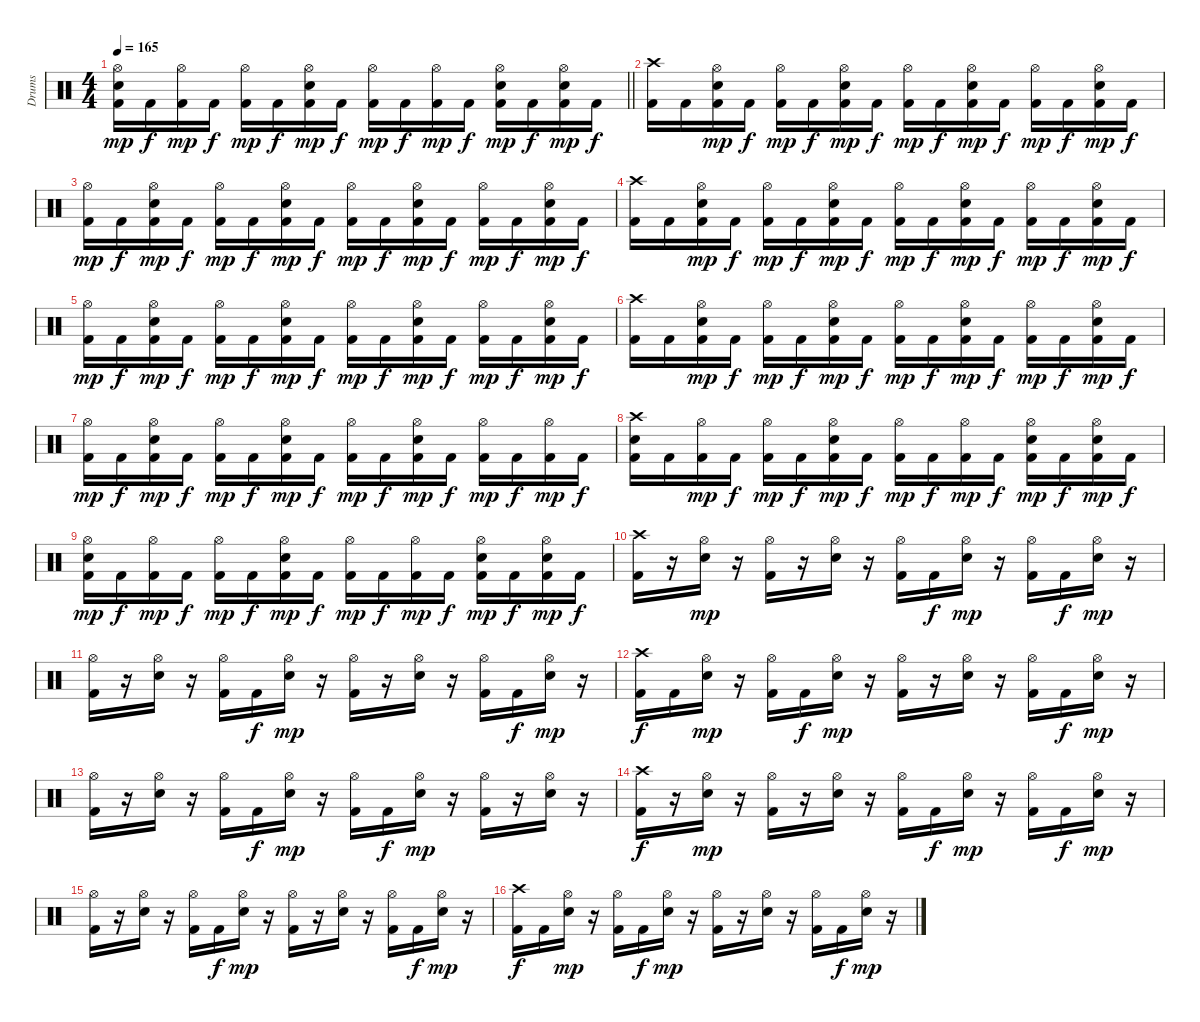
\track ("Drums" "Drums") {instrument percussion}
\staff {score}
\articulation defaults
\ts (4 4)
\tempo 165
\clef neutral
\barLineRight lightlight
\ks c
("Hi-Hat (open)" "Snare (hit) 2" "Kick (hit) 2").16{dy mp} "Kick (hit) 2".16{dy f} ("Hi-Hat (open)" "Kick (hit) 2").16{dy mp} "Kick (hit) 2".16{dy f} ("Hi-Hat (open)" "Kick (hit) 2").16{dy mp} "Kick (hit) 2".16{dy f} ("Hi-Hat (open)" "Snare (hit) 2" "Kick (hit) 2").16{dy mp} "Kick (hit) 2".16{dy f} ("Hi-Hat (open)" "Kick (hit) 2").16{dy mp} "Kick (hit) 2".16{dy f} ("Hi-Hat (open)" "Kick (hit) 2").16{dy mp} "Kick (hit) 2".16{dy f} ("Hi-Hat (open)" "Snare (hit) 2" "Kick (hit) 2").16{dy mp} "Kick (hit) 2".16{dy f} ("Hi-Hat (open)" "Snare (hit) 2" "Kick (hit) 2").16{dy mp} "Kick (hit) 2".16{dy f} |
("Crash high (hit)" "Kick (hit) 2").16 "Kick (hit) 2".16 ("Hi-Hat (open)" "Snare (hit) 2" "Kick (hit) 2").16{dy mp} "Kick (hit) 2".16{dy f} ("Hi-Hat (open)" "Kick (hit) 2").16{dy mp} "Kick (hit) 2".16{dy f} ("Hi-Hat (open)" "Snare (hit) 2" "Kick (hit) 2").16{dy mp} "Kick (hit) 2".16{dy f} ("Hi-Hat (open)" "Kick (hit) 2").16{dy mp} "Kick (hit) 2".16{dy f} ("Hi-Hat (open)" "Snare (hit) 2" "Kick (hit) 2").16{dy mp} "Kick (hit) 2".16{dy f} ("Hi-Hat (open)" "Kick (hit) 2").16{dy mp} "Kick (hit) 2".16{dy f} ("Hi-Hat (open)" "Snare (hit) 2" "Kick (hit) 2").16{dy mp} "Kick (hit) 2".16{dy f} |
("Hi-Hat (open)" "Kick (hit) 2").16{dy mp} "Kick (hit) 2".16{dy f} ("Hi-Hat (open)" "Snare (hit) 2" "Kick (hit) 2").16{dy mp} "Kick (hit) 2".16{dy f} ("Hi-Hat (open)" "Kick (hit) 2").16{dy mp} "Kick (hit) 2".16{dy f} ("Hi-Hat (open)" "Snare (hit) 2" "Kick (hit) 2").16{dy mp} "Kick (hit) 2".16{dy f} ("Hi-Hat (open)" "Kick (hit) 2").16{dy mp} "Kick (hit) 2".16{dy f} ("Hi-Hat (open)" "Snare (hit) 2" "Kick (hit) 2").16{dy mp} "Kick (hit) 2".16{dy f} ("Hi-Hat (open)" "Kick (hit) 2").16{dy mp} "Kick (hit) 2".16{dy f} ("Hi-Hat (open)" "Snare (hit) 2" "Kick (hit) 2").16{dy mp} "Kick (hit) 2".16{dy f} |
("Crash high (hit)" "Kick (hit) 2").16 "Kick (hit) 2".16 ("Hi-Hat (open)" "Snare (hit) 2" "Kick (hit) 2").16{dy mp} "Kick (hit) 2".16{dy f} ("Hi-Hat (open)" "Kick (hit) 2").16{dy mp} "Kick (hit) 2".16{dy f} ("Hi-Hat (open)" "Snare (hit) 2" "Kick (hit) 2").16{dy mp} "Kick (hit) 2".16{dy f} ("Hi-Hat (open)" "Kick (hit) 2").16{dy mp} "Kick (hit) 2".16{dy f} ("Hi-Hat (open)" "Snare (hit) 2" "Kick (hit) 2").16{dy mp} "Kick (hit) 2".16{dy f} ("Hi-Hat (open)" "Kick (hit) 2").16{dy mp} "Kick (hit) 2".16{dy f} ("Hi-Hat (open)" "Snare (hit) 2" "Kick (hit) 2").16{dy mp} "Kick (hit) 2".16{dy f} |
("Hi-Hat (open)" "Kick (hit) 2").16{dy mp} "Kick (hit) 2".16{dy f} ("Hi-Hat (open)" "Snare (hit) 2" "Kick (hit) 2").16{dy mp} "Kick (hit) 2".16{dy f} ("Hi-Hat (open)" "Kick (hit) 2").16{dy mp} "Kick (hit) 2".16{dy f} ("Hi-Hat (open)" "Snare (hit) 2" "Kick (hit) 2").16{dy mp} "Kick (hit) 2".16{dy f} ("Hi-Hat (open)" "Kick (hit) 2").16{dy mp} "Kick (hit) 2".16{dy f} ("Hi-Hat (open)" "Snare (hit) 2" "Kick (hit) 2").16{dy mp} "Kick (hit) 2".16{dy f} ("Hi-Hat (open)" "Kick (hit) 2").16{dy mp} "Kick (hit) 2".16{dy f} ("Hi-Hat (open)" "Snare (hit) 2" "Kick (hit) 2").16{dy mp} "Kick (hit) 2".16{dy f} |
("Crash high (hit)" "Kick (hit) 2").16 "Kick (hit) 2".16 ("Hi-Hat (open)" "Snare (hit) 2" "Kick (hit) 2").16{dy mp} "Kick (hit) 2".16{dy f} ("Hi-Hat (open)" "Kick (hit) 2").16{dy mp} "Kick (hit) 2".16{dy f} ("Hi-Hat (open)" "Snare (hit) 2" "Kick (hit) 2").16{dy mp} "Kick (hit) 2".16{dy f} ("Hi-Hat (open)" "Kick (hit) 2").16{dy mp} "Kick (hit) 2".16{dy f} ("Hi-Hat (open)" "Snare (hit) 2" "Kick (hit) 2").16{dy mp} "Kick (hit) 2".16{dy f} ("Hi-Hat (open)" "Kick (hit) 2").16{dy mp} "Kick (hit) 2".16{dy f} ("Hi-Hat (open)" "Snare (hit) 2" "Kick (hit) 2").16{dy mp} "Kick (hit) 2".16{dy f} |
("Hi-Hat (open)" "Kick (hit) 2").16{dy mp} "Kick (hit) 2".16{dy f} ("Hi-Hat (open)" "Snare (hit) 2" "Kick (hit) 2").16{dy mp} "Kick (hit) 2".16{dy f} ("Hi-Hat (open)" "Kick (hit) 2").16{dy mp} "Kick (hit) 2".16{dy f} ("Hi-Hat (open)" "Snare (hit) 2" "Kick (hit) 2").16{dy mp} "Kick (hit) 2".16{dy f} ("Hi-Hat (open)" "Kick (hit) 2").16{dy mp} "Kick (hit) 2".16{dy f} ("Hi-Hat (open)" "Snare (hit) 2" "Kick (hit) 2").16{dy mp} "Kick (hit) 2".16{dy f} ("Hi-Hat (open)" "Kick (hit) 2").16{dy mp} "Kick (hit) 2".16{dy f} ("Hi-Hat (open)" "Kick (hit) 2").16{dy mp} "Kick (hit) 2".16{dy f} |
("Crash high (hit)" "Snare (hit) 2" "Kick (hit) 2").16 "Kick (hit) 2".16 ("Hi-Hat (open)" "Kick (hit) 2").16{dy mp} "Kick (hit) 2".16{dy f} ("Hi-Hat (open)" "Kick (hit) 2").16{dy mp} "Kick (hit) 2".16{dy f} ("Hi-Hat (open)" "Snare (hit) 2" "Kick (hit) 2").16{dy mp} "Kick (hit) 2".16{dy f} ("Hi-Hat (open)" "Kick (hit) 2").16{dy mp} "Kick (hit) 2".16{dy f} ("Hi-Hat (open)" "Kick (hit) 2").16{dy mp} "Kick (hit) 2".16{dy f} ("Hi-Hat (open)" "Snare (hit) 2" "Kick (hit) 2").16{dy mp} "Kick (hit) 2".16{dy f} ("Hi-Hat (open)" "Snare (hit) 2" "Kick (hit) 2").16{dy mp} "Kick (hit) 2".16{dy f} |
("Hi-Hat (open)" "Snare (hit) 2" "Kick (hit) 2").16{dy mp} "Kick (hit) 2".16{dy f} ("Hi-Hat (open)" "Kick (hit) 2").16{dy mp} "Kick (hit) 2".16{dy f} ("Hi-Hat (open)" "Kick (hit) 2").16{dy mp} "Kick (hit) 2".16{dy f} ("Hi-Hat (open)" "Snare (hit) 2" "Kick (hit) 2").16{dy mp} "Kick (hit) 2".16{dy f} ("Hi-Hat (open)" "Kick (hit) 2").16{dy mp} "Kick (hit) 2".16{dy f} ("Hi-Hat (open)" "Kick (hit) 2").16{dy mp} "Kick (hit) 2".16{dy f} ("Hi-Hat (open)" "Snare (hit) 2" "Kick (hit) 2").16{dy mp} "Kick (hit) 2".16{dy f} ("Hi-Hat (open)" "Snare (hit) 2" "Kick (hit) 2").16{dy mp} "Kick (hit) 2".16{dy f} |
("Crash high (hit)" "Kick (hit) 2").16 r.16 ("Hi-Hat (open)" "Snare (hit) 2").16{dy mp} r.16 ("Hi-Hat (open)" "Kick (hit) 2").16 r.16 ("Hi-Hat (open)" "Snare (hit) 2").16 r.16 ("Hi-Hat (open)" "Kick (hit) 2").16 "Kick (hit) 2".16{dy f} ("Hi-Hat (open)" "Snare (hit) 2").16{dy mp} r.16 ("Hi-Hat (open)" "Kick (hit) 2").16 "Kick (hit) 2".16{dy f} ("Hi-Hat (open)" "Snare (hit) 2").16{dy mp} r.16 |
("Hi-Hat (open)" "Kick (hit) 2").16 r.16 ("Hi-Hat (open)" "Snare (hit) 2").16 r.16 ("Hi-Hat (open)" "Kick (hit) 2").16 "Kick (hit) 2".16{dy f} ("Hi-Hat (open)" "Snare (hit) 2").16{dy mp} r.16 ("Hi-Hat (open)" "Kick (hit) 2").16 r.16 ("Hi-Hat (open)" "Snare (hit) 2").16 r.16 ("Hi-Hat (open)" "Kick (hit) 2").16 "Kick (hit) 2".16{dy f} ("Hi-Hat (open)" "Snare (hit) 2").16{dy mp} r.16 |
("Crash high (hit)" "Kick (hit) 2").16{dy f} "Kick (hit) 2".16 ("Hi-Hat (open)" "Snare (hit) 2").16{dy mp} r.16 ("Hi-Hat (open)" "Kick (hit) 2").16 "Kick (hit) 2".16{dy f} ("Hi-Hat (open)" "Snare (hit) 2").16{dy mp} r.16 ("Hi-Hat (open)" "Kick (hit) 2").16 r.16 ("Hi-Hat (open)" "Snare (hit) 2").16 r.16 ("Hi-Hat (open)" "Kick (hit) 2").16 "Kick (hit) 2".16{dy f} ("Hi-Hat (open)" "Snare (hit) 2").16{dy mp} r.16 |
("Hi-Hat (open)" "Kick (hit) 2").16 r.16 ("Hi-Hat (open)" "Snare (hit) 2").16 r.16 ("Hi-Hat (open)" "Kick (hit) 2").16 "Kick (hit) 2".16{dy f} ("Hi-Hat (open)" "Snare (hit) 2").16{dy mp} r.16 ("Hi-Hat (open)" "Kick (hit) 2").16 "Kick (hit) 2".16{dy f} ("Hi-Hat (open)" "Snare (hit) 2").16{dy mp} r.16 ("Hi-Hat (open)" "Kick (hit) 2").16 r.16 ("Hi-Hat (open)" "Snare (hit) 2").16 r.16 |
("Crash high (hit)" "Kick (hit) 2").16{dy f} r.16 ("Hi-Hat (open)" "Snare (hit) 2").16{dy mp} r.16 ("Hi-Hat (open)" "Kick (hit) 2").16 r.16 ("Hi-Hat (open)" "Snare (hit) 2").16 r.16 ("Hi-Hat (open)" "Kick (hit) 2").16 "Kick (hit) 2".16{dy f} ("Hi-Hat (open)" "Snare (hit) 2").16{dy mp} r.16 ("Hi-Hat (open)" "Kick (hit) 2").16 "Kick (hit) 2".16{dy f} ("Hi-Hat (open)" "Snare (hit) 2").16{dy mp} r.16 |
("Hi-Hat (open)" "Kick (hit) 2").16 r.16 ("Hi-Hat (open)" "Snare (hit) 2").16 r.16 ("Hi-Hat (open)" "Kick (hit) 2").16 "Kick (hit) 2".16{dy f} ("Hi-Hat (open)" "Snare (hit) 2").16{dy mp} r.16 ("Hi-Hat (open)" "Kick (hit) 2").16 r.16 ("Hi-Hat (open)" "Snare (hit) 2").16 r.16 ("Hi-Hat (open)" "Kick (hit) 2").16 "Kick (hit) 2".16{dy f} ("Hi-Hat (open)" "Snare (hit) 2").16{dy mp} r.16 |
("Crash high (hit)" "Kick (hit) 2").16{dy f} "Kick (hit) 2".16 ("Hi-Hat (open)" "Snare (hit) 2").16{dy mp} r.16 ("Hi-Hat (open)" "Kick (hit) 2").16 "Kick (hit) 2".16{dy f} ("Hi-Hat (open)" "Snare (hit) 2").16{dy mp} r.16 ("Hi-Hat (open)" "Kick (hit) 2").16 r.16 ("Hi-Hat (open)" "Snare (hit) 2").16 r.16 ("Hi-Hat (open)" "Kick (hit) 2").16 "Kick (hit) 2".16{dy f} ("Hi-Hat (open)" "Snare (hit) 2").16{dy mp} r.16
